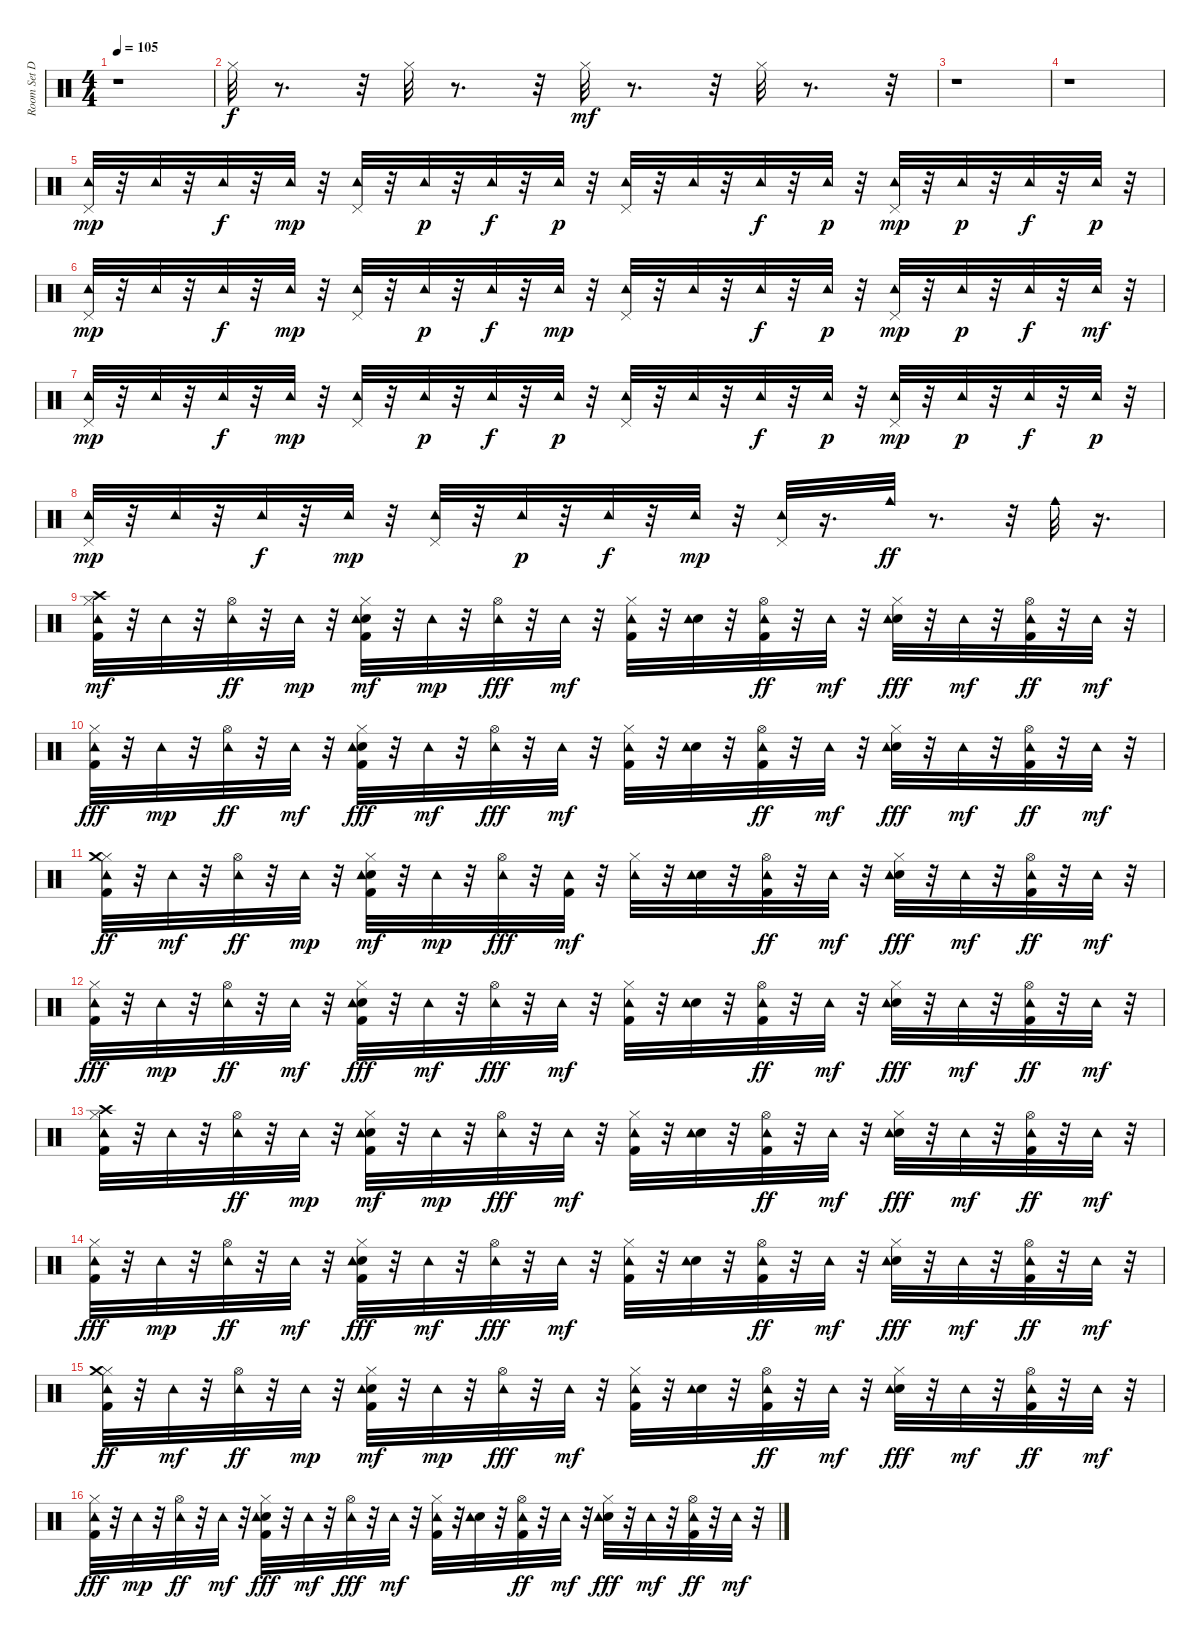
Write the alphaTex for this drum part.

\track ("Room Set Drums" "Room Set D") {instrument percussion}
\staff {score}
\articulation defaults
\ts (4 4)
\tempo 105
\clef neutral
\ks c
r.1{dy f} |
"Hi-Hat (closed)".32 r.8{d} r.32 "Hi-Hat (closed)".32 r.8{d} r.32 "Hi-Hat (closed)".32{dy mf} r.8{d} r.32 "Hi-Hat (closed)".32 r.8{d} r.32 |
r.1 |
r.1 |
("Pedal Hi-Hat (hit)" "Tambourine (hit)").32{dy mp} r.32 "Tambourine (hit)".32 r.32 "Tambourine (hit)".32{dy f} r.32 "Tambourine (hit)".32{dy mp} r.32 ("Pedal Hi-Hat (hit)" "Tambourine (hit)").32 r.32 "Tambourine (hit)".32{dy p} r.32 "Tambourine (hit)".32{dy f} r.32 "Tambourine (hit)".32{dy p} r.32 ("Pedal Hi-Hat (hit)" "Tambourine (hit)").32 r.32 "Tambourine (hit)".32 r.32 "Tambourine (hit)".32{dy f} r.32 "Tambourine (hit)".32{dy p} r.32 ("Pedal Hi-Hat (hit)" "Tambourine (hit)").32{dy mp} r.32 "Tambourine (hit)".32{dy p} r.32 "Tambourine (hit)".32{dy f} r.32 "Tambourine (hit)".32{dy p} r.32 |
("Pedal Hi-Hat (hit)" "Tambourine (hit)").32{dy mp} r.32 "Tambourine (hit)".32 r.32 "Tambourine (hit)".32{dy f} r.32 "Tambourine (hit)".32{dy mp} r.32 ("Pedal Hi-Hat (hit)" "Tambourine (hit)").32 r.32 "Tambourine (hit)".32{dy p} r.32 "Tambourine (hit)".32{dy f} r.32 "Tambourine (hit)".32{dy mp} r.32 ("Pedal Hi-Hat (hit)" "Tambourine (hit)").32 r.32 "Tambourine (hit)".32 r.32 "Tambourine (hit)".32{dy f} r.32 "Tambourine (hit)".32{dy p} r.32 ("Pedal Hi-Hat (hit)" "Tambourine (hit)").32{dy mp} r.32 "Tambourine (hit)".32{dy p} r.32 "Tambourine (hit)".32{dy f} r.32 "Tambourine (hit)".32{dy mf} r.32 |
("Pedal Hi-Hat (hit)" "Tambourine (hit)").32{dy mp} r.32 "Tambourine (hit)".32 r.32 "Tambourine (hit)".32{dy f} r.32 "Tambourine (hit)".32{dy mp} r.32 ("Pedal Hi-Hat (hit)" "Tambourine (hit)").32 r.32 "Tambourine (hit)".32{dy p} r.32 "Tambourine (hit)".32{dy f} r.32 "Tambourine (hit)".32{dy p} r.32 ("Pedal Hi-Hat (hit)" "Tambourine (hit)").32 r.32 "Tambourine (hit)".32 r.32 "Tambourine (hit)".32{dy f} r.32 "Tambourine (hit)".32{dy p} r.32 ("Pedal Hi-Hat (hit)" "Tambourine (hit)").32{dy mp} r.32 "Tambourine (hit)".32{dy p} r.32 "Tambourine (hit)".32{dy f} r.32 "Tambourine (hit)".32{dy p} r.32 |
("Pedal Hi-Hat (hit)" "Tambourine (hit)").32{dy mp} r.32 "Tambourine (hit)".32 r.32 "Tambourine (hit)".32{dy f} r.32 "Tambourine (hit)".32{dy mp} r.32 ("Pedal Hi-Hat (hit)" "Tambourine (hit)").32 r.32 "Tambourine (hit)".32{dy p} r.32 "Tambourine (hit)".32{dy f} r.32 "Tambourine (hit)".32{dy mp} r.32 ("Pedal Hi-Hat (hit)" "Tambourine (hit)").32 r.16{d} "Cowbell medium (hit)".32{dy ff} r.8{d} r.32 "Cowbell medium (hit)".32 r.16{d} |
("Kick (hit) 2" "Hi-Hat (closed)" "Crash high (hit)" "Tambourine (hit)").32{dy mf} r.32 "Tambourine (hit)".32 r.32 ("Hi-Hat (open)" "Tambourine (hit)").32{dy ff} r.32 "Tambourine (hit)".32{dy mp} r.32 ("Kick (hit) 2" "Electric Snare (hit)" "Hi-Hat (closed)" "Tambourine (hit)").32{dy mf} r.32 "Tambourine (hit)".32{dy mp} r.32 ("Hi-Hat (open)" "Tambourine (hit)").32{dy fff} r.32 "Tambourine (hit)".32{dy mf} r.32 ("Kick (hit) 2" "Hi-Hat (closed)" "Tambourine (hit)").32 r.32 ("Electric Snare (hit)" "Tambourine (hit)").32 r.32 ("Kick (hit) 2" "Hi-Hat (open)" "Tambourine (hit)").32{dy ff} r.32 "Tambourine (hit)".32{dy mf} r.32 ("Electric Snare (hit)" "Hi-Hat (closed)" "Tambourine (hit)").32{dy fff} r.32 "Tambourine (hit)".32{dy mf} r.32 ("Kick (hit) 2" "Hi-Hat (open)" "Tambourine (hit)").32{dy ff} r.32 "Tambourine (hit)".32{dy mf} r.32 |
("Kick (hit) 2" "Hi-Hat (closed)" "Tambourine (hit)").32{dy fff} r.32 "Tambourine (hit)".32{dy mp} r.32 ("Hi-Hat (open)" "Tambourine (hit)").32{dy ff} r.32 "Tambourine (hit)".32{dy mf} r.32 ("Kick (hit) 2" "Electric Snare (hit)" "Hi-Hat (closed)" "Tambourine (hit)").32{dy fff} r.32 "Tambourine (hit)".32{dy mf} r.32 ("Hi-Hat (open)" "Tambourine (hit)").32{dy fff} r.32 "Tambourine (hit)".32{dy mf} r.32 ("Kick (hit) 2" "Hi-Hat (closed)" "Tambourine (hit)").32 r.32 ("Electric Snare (hit)" "Tambourine (hit)").32 r.32 ("Kick (hit) 2" "Hi-Hat (open)" "Tambourine (hit)").32{dy ff} r.32 "Tambourine (hit)".32{dy mf} r.32 ("Electric Snare (hit)" "Hi-Hat (closed)" "Tambourine (hit)").32{dy fff} r.32 "Tambourine (hit)".32{dy mf} r.32 ("Kick (hit) 2" "Hi-Hat (open)" "Tambourine (hit)").32{dy ff} r.32 "Tambourine (hit)".32{dy mf} r.32 |
("Kick (hit) 2" "Hi-Hat (closed)" "Tambourine (hit)" "Crash medium (hit)").32{dy ff} r.32 "Tambourine (hit)".32{dy mf} r.32 ("Hi-Hat (open)" "Tambourine (hit)").32{dy ff} r.32 "Tambourine (hit)".32{dy mp} r.32 ("Kick (hit) 2" "Electric Snare (hit)" "Hi-Hat (closed)" "Tambourine (hit)").32{dy mf} r.32 "Tambourine (hit)".32{dy mp} r.32 ("Hi-Hat (open)" "Tambourine (hit)").32{dy fff} r.32 ("Kick (hit) 2" "Tambourine (hit)").32{dy mf} r.32 ("Hi-Hat (closed)" "Tambourine (hit)").32 r.32 ("Electric Snare (hit)" "Tambourine (hit)").32 r.32 ("Kick (hit) 2" "Hi-Hat (open)" "Tambourine (hit)").32{dy ff} r.32 "Tambourine (hit)".32{dy mf} r.32 ("Electric Snare (hit)" "Hi-Hat (closed)" "Tambourine (hit)").32{dy fff} r.32 "Tambourine (hit)".32{dy mf} r.32 ("Kick (hit) 2" "Hi-Hat (open)" "Tambourine (hit)").32{dy ff} r.32 "Tambourine (hit)".32{dy mf} r.32 |
("Kick (hit) 2" "Hi-Hat (closed)" "Tambourine (hit)").32{dy fff} r.32 "Tambourine (hit)".32{dy mp} r.32 ("Hi-Hat (open)" "Tambourine (hit)").32{dy ff} r.32 "Tambourine (hit)".32{dy mf} r.32 ("Kick (hit) 2" "Electric Snare (hit)" "Hi-Hat (closed)" "Tambourine (hit)").32{dy fff} r.32 "Tambourine (hit)".32{dy mf} r.32 ("Hi-Hat (open)" "Tambourine (hit)").32{dy fff} r.32 "Tambourine (hit)".32{dy mf} r.32 ("Kick (hit) 2" "Hi-Hat (closed)" "Tambourine (hit)").32 r.32 ("Electric Snare (hit)" "Tambourine (hit)").32 r.32 ("Kick (hit) 2" "Hi-Hat (open)" "Tambourine (hit)").32{dy ff} r.32 "Tambourine (hit)".32{dy mf} r.32 ("Electric Snare (hit)" "Hi-Hat (closed)" "Tambourine (hit)").32{dy fff} r.32 "Tambourine (hit)".32{dy mf} r.32 ("Kick (hit) 2" "Hi-Hat (open)" "Tambourine (hit)").32{dy ff} r.32 "Tambourine (hit)".32{dy mf} r.32 |
("Kick (hit) 2" "Hi-Hat (closed)" "Crash high (hit)" "Tambourine (hit)").32 r.32 "Tambourine (hit)".32 r.32 ("Hi-Hat (open)" "Tambourine (hit)").32{dy ff} r.32 "Tambourine (hit)".32{dy mp} r.32 ("Kick (hit) 2" "Electric Snare (hit)" "Hi-Hat (closed)" "Tambourine (hit)").32{dy mf} r.32 "Tambourine (hit)".32{dy mp} r.32 ("Hi-Hat (open)" "Tambourine (hit)").32{dy fff} r.32 "Tambourine (hit)".32{dy mf} r.32 ("Kick (hit) 2" "Hi-Hat (closed)" "Tambourine (hit)").32 r.32 ("Electric Snare (hit)" "Tambourine (hit)").32 r.32 ("Kick (hit) 2" "Hi-Hat (open)" "Tambourine (hit)").32{dy ff} r.32 "Tambourine (hit)".32{dy mf} r.32 ("Electric Snare (hit)" "Hi-Hat (closed)" "Tambourine (hit)").32{dy fff} r.32 "Tambourine (hit)".32{dy mf} r.32 ("Kick (hit) 2" "Hi-Hat (open)" "Tambourine (hit)").32{dy ff} r.32 "Tambourine (hit)".32{dy mf} r.32 |
("Kick (hit) 2" "Hi-Hat (closed)" "Tambourine (hit)").32{dy fff} r.32 "Tambourine (hit)".32{dy mp} r.32 ("Hi-Hat (open)" "Tambourine (hit)").32{dy ff} r.32 "Tambourine (hit)".32{dy mf} r.32 ("Kick (hit) 2" "Electric Snare (hit)" "Hi-Hat (closed)" "Tambourine (hit)").32{dy fff} r.32 "Tambourine (hit)".32{dy mf} r.32 ("Hi-Hat (open)" "Tambourine (hit)").32{dy fff} r.32 "Tambourine (hit)".32{dy mf} r.32 ("Kick (hit) 2" "Hi-Hat (closed)" "Tambourine (hit)").32 r.32 ("Electric Snare (hit)" "Tambourine (hit)").32 r.32 ("Kick (hit) 2" "Hi-Hat (open)" "Tambourine (hit)").32{dy ff} r.32 "Tambourine (hit)".32{dy mf} r.32 ("Electric Snare (hit)" "Hi-Hat (closed)" "Tambourine (hit)").32{dy fff} r.32 "Tambourine (hit)".32{dy mf} r.32 ("Kick (hit) 2" "Hi-Hat (open)" "Tambourine (hit)").32{dy ff} r.32 "Tambourine (hit)".32{dy mf} r.32 |
("Kick (hit) 2" "Hi-Hat (closed)" "Tambourine (hit)" "Crash medium (hit)").32{dy ff} r.32 "Tambourine (hit)".32{dy mf} r.32 ("Hi-Hat (open)" "Tambourine (hit)").32{dy ff} r.32 "Tambourine (hit)".32{dy mp} r.32 ("Kick (hit) 2" "Electric Snare (hit)" "Hi-Hat (closed)" "Tambourine (hit)").32{dy mf} r.32 "Tambourine (hit)".32{dy mp} r.32 ("Hi-Hat (open)" "Tambourine (hit)").32{dy fff} r.32 "Tambourine (hit)".32{dy mf} r.32 ("Kick (hit) 2" "Hi-Hat (closed)" "Tambourine (hit)").32 r.32 ("Electric Snare (hit)" "Tambourine (hit)").32 r.32 ("Kick (hit) 2" "Hi-Hat (open)" "Tambourine (hit)").32{dy ff} r.32 "Tambourine (hit)".32{dy mf} r.32 ("Electric Snare (hit)" "Hi-Hat (closed)" "Tambourine (hit)").32{dy fff} r.32 "Tambourine (hit)".32{dy mf} r.32 ("Kick (hit) 2" "Hi-Hat (open)" "Tambourine (hit)").32{dy ff} r.32 "Tambourine (hit)".32{dy mf} r.32 |
("Kick (hit) 2" "Hi-Hat (closed)" "Tambourine (hit)").32{dy fff} r.32 "Tambourine (hit)".32{dy mp} r.32 ("Hi-Hat (open)" "Tambourine (hit)").32{dy ff} r.32 "Tambourine (hit)".32{dy mf} r.32 ("Kick (hit) 2" "Electric Snare (hit)" "Hi-Hat (closed)" "Tambourine (hit)").32{dy fff} r.32 "Tambourine (hit)".32{dy mf} r.32 ("Hi-Hat (open)" "Tambourine (hit)").32{dy fff} r.32 "Tambourine (hit)".32{dy mf} r.32 ("Kick (hit) 2" "Hi-Hat (closed)" "Tambourine (hit)").32 r.32 ("Electric Snare (hit)" "Tambourine (hit)").32 r.32 ("Kick (hit) 2" "Hi-Hat (open)" "Tambourine (hit)").32{dy ff} r.32 "Tambourine (hit)".32{dy mf} r.32 ("Electric Snare (hit)" "Hi-Hat (closed)" "Tambourine (hit)").32{dy fff} r.32 "Tambourine (hit)".32{dy mf} r.32 ("Kick (hit) 2" "Hi-Hat (open)" "Tambourine (hit)").32{dy ff} r.32 "Tambourine (hit)".32{dy mf} r.32
